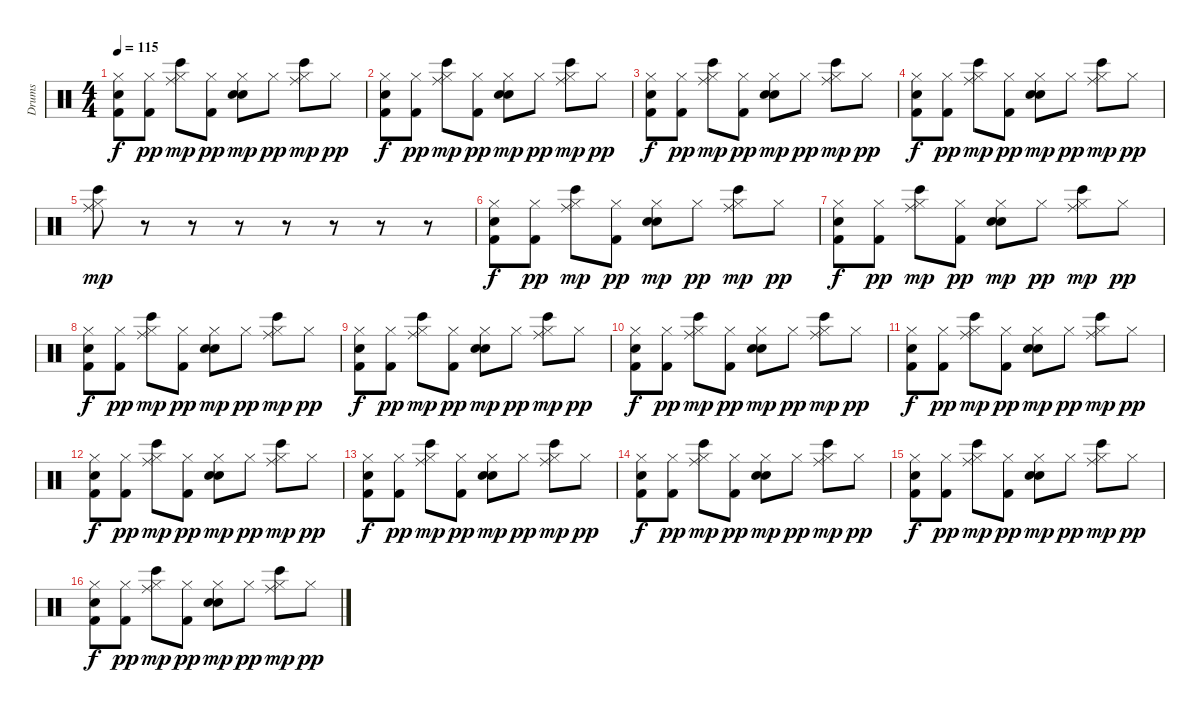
\track ("Drums" "Drums") {instrument percussion}
\staff {score}
\articulation defaults
\ts (4 4)
\tempo 115
\clef neutral
\ks c
("Hi-Hat (closed)" "Hand Clap (hit)" "Kick (hit) 2").8{dy f} ("Hi-Hat (closed)" "Kick (hit) 2").8{dy pp} ("Hi-Hat (closed)" "Ride (middle)" "Bongo High (hit)").8{dy mp} ("Hi-Hat (closed)" "Kick (hit) 2").8{dy pp} ("Hi-Hat (closed)" "Hand Clap (hit)" "Electric Snare (hit)").8{dy mp} "Hi-Hat (closed)".8{dy pp} ("Hi-Hat (closed)" "Ride (middle)" "Bongo High (hit)").8{dy mp} "Hi-Hat (closed)".8{dy pp} |
("Hi-Hat (closed)" "Hand Clap (hit)" "Kick (hit) 2").8{dy f} ("Hi-Hat (closed)" "Kick (hit) 2").8{dy pp} ("Hi-Hat (closed)" "Ride (middle)" "Bongo High (hit)").8{dy mp} ("Hi-Hat (closed)" "Kick (hit) 2").8{dy pp} ("Hi-Hat (closed)" "Hand Clap (hit)" "Electric Snare (hit)").8{dy mp} "Hi-Hat (closed)".8{dy pp} ("Hi-Hat (closed)" "Ride (middle)" "Bongo High (hit)").8{dy mp} "Hi-Hat (closed)".8{dy pp} |
("Hi-Hat (closed)" "Hand Clap (hit)" "Kick (hit) 2").8{dy f} ("Hi-Hat (closed)" "Kick (hit) 2").8{dy pp} ("Hi-Hat (closed)" "Ride (middle)" "Bongo High (hit)").8{dy mp} ("Hi-Hat (closed)" "Kick (hit) 2").8{dy pp} ("Hi-Hat (closed)" "Hand Clap (hit)" "Electric Snare (hit)").8{dy mp} "Hi-Hat (closed)".8{dy pp} ("Hi-Hat (closed)" "Ride (middle)" "Bongo High (hit)").8{dy mp} "Hi-Hat (closed)".8{dy pp} |
("Hi-Hat (closed)" "Hand Clap (hit)" "Kick (hit) 2").8{dy f} ("Hi-Hat (closed)" "Kick (hit) 2").8{dy pp} ("Hi-Hat (closed)" "Ride (middle)" "Bongo High (hit)").8{dy mp} ("Hi-Hat (closed)" "Kick (hit) 2").8{dy pp} ("Hi-Hat (closed)" "Hand Clap (hit)" "Electric Snare (hit)").8{dy mp} "Hi-Hat (closed)".8{dy pp} ("Hi-Hat (closed)" "Ride (middle)" "Bongo High (hit)").8{dy mp} "Hi-Hat (closed)".8{dy pp} |
("Hi-Hat (closed)" "Ride (middle)" "Bongo High (hit)").8{dy mp} r.8 r.8 r.8 r.8 r.8 r.8 r.8 |
("Hi-Hat (closed)" "Hand Clap (hit)" "Kick (hit) 2").8{dy f} ("Hi-Hat (closed)" "Kick (hit) 2").8{dy pp} ("Hi-Hat (closed)" "Ride (middle)" "Bongo High (hit)").8{dy mp} ("Hi-Hat (closed)" "Kick (hit) 2").8{dy pp} ("Hi-Hat (closed)" "Hand Clap (hit)" "Electric Snare (hit)").8{dy mp} "Hi-Hat (closed)".8{dy pp} ("Hi-Hat (closed)" "Ride (middle)" "Bongo High (hit)").8{dy mp} "Hi-Hat (closed)".8{dy pp} |
("Hi-Hat (closed)" "Hand Clap (hit)" "Kick (hit) 2").8{dy f} ("Hi-Hat (closed)" "Kick (hit) 2").8{dy pp} ("Hi-Hat (closed)" "Ride (middle)" "Bongo High (hit)").8{dy mp} ("Hi-Hat (closed)" "Kick (hit) 2").8{dy pp} ("Hi-Hat (closed)" "Hand Clap (hit)" "Electric Snare (hit)").8{dy mp} "Hi-Hat (closed)".8{dy pp} ("Hi-Hat (closed)" "Ride (middle)" "Bongo High (hit)").8{dy mp} "Hi-Hat (closed)".8{dy pp} |
("Hi-Hat (closed)" "Hand Clap (hit)" "Kick (hit) 2").8{dy f} ("Hi-Hat (closed)" "Kick (hit) 2").8{dy pp} ("Hi-Hat (closed)" "Ride (middle)" "Bongo High (hit)").8{dy mp} ("Hi-Hat (closed)" "Kick (hit) 2").8{dy pp} ("Hi-Hat (closed)" "Hand Clap (hit)" "Electric Snare (hit)").8{dy mp} "Hi-Hat (closed)".8{dy pp} ("Hi-Hat (closed)" "Ride (middle)" "Bongo High (hit)").8{dy mp} "Hi-Hat (closed)".8{dy pp} |
("Hi-Hat (closed)" "Hand Clap (hit)" "Kick (hit) 2").8{dy f} ("Hi-Hat (closed)" "Kick (hit) 2").8{dy pp} ("Hi-Hat (closed)" "Ride (middle)" "Bongo High (hit)").8{dy mp} ("Hi-Hat (closed)" "Kick (hit) 2").8{dy pp} ("Hi-Hat (closed)" "Hand Clap (hit)" "Electric Snare (hit)").8{dy mp} "Hi-Hat (closed)".8{dy pp} ("Hi-Hat (closed)" "Ride (middle)" "Bongo High (hit)").8{dy mp} "Hi-Hat (closed)".8{dy pp} |
("Hi-Hat (closed)" "Hand Clap (hit)" "Kick (hit) 2").8{dy f} ("Hi-Hat (closed)" "Kick (hit) 2").8{dy pp} ("Hi-Hat (closed)" "Ride (middle)" "Bongo High (hit)").8{dy mp} ("Hi-Hat (closed)" "Kick (hit) 2").8{dy pp} ("Hi-Hat (closed)" "Hand Clap (hit)" "Electric Snare (hit)").8{dy mp} "Hi-Hat (closed)".8{dy pp} ("Hi-Hat (closed)" "Ride (middle)" "Bongo High (hit)").8{dy mp} "Hi-Hat (closed)".8{dy pp} |
("Hi-Hat (closed)" "Hand Clap (hit)" "Kick (hit) 2").8{dy f} ("Hi-Hat (closed)" "Kick (hit) 2").8{dy pp} ("Hi-Hat (closed)" "Ride (middle)" "Bongo High (hit)").8{dy mp} ("Hi-Hat (closed)" "Kick (hit) 2").8{dy pp} ("Hi-Hat (closed)" "Hand Clap (hit)" "Electric Snare (hit)").8{dy mp} "Hi-Hat (closed)".8{dy pp} ("Hi-Hat (closed)" "Ride (middle)" "Bongo High (hit)").8{dy mp} "Hi-Hat (closed)".8{dy pp} |
("Hi-Hat (closed)" "Hand Clap (hit)" "Kick (hit) 2").8{dy f} ("Hi-Hat (closed)" "Kick (hit) 2").8{dy pp} ("Hi-Hat (closed)" "Ride (middle)" "Bongo High (hit)").8{dy mp} ("Hi-Hat (closed)" "Kick (hit) 2").8{dy pp} ("Hi-Hat (closed)" "Hand Clap (hit)" "Electric Snare (hit)").8{dy mp} "Hi-Hat (closed)".8{dy pp} ("Hi-Hat (closed)" "Ride (middle)" "Bongo High (hit)").8{dy mp} "Hi-Hat (closed)".8{dy pp} |
("Hi-Hat (closed)" "Hand Clap (hit)" "Kick (hit) 2").8{dy f} ("Hi-Hat (closed)" "Kick (hit) 2").8{dy pp} ("Hi-Hat (closed)" "Ride (middle)" "Bongo High (hit)").8{dy mp} ("Hi-Hat (closed)" "Kick (hit) 2").8{dy pp} ("Hi-Hat (closed)" "Hand Clap (hit)" "Electric Snare (hit)").8{dy mp} "Hi-Hat (closed)".8{dy pp} ("Hi-Hat (closed)" "Ride (middle)" "Bongo High (hit)").8{dy mp} "Hi-Hat (closed)".8{dy pp} |
("Hi-Hat (closed)" "Hand Clap (hit)" "Kick (hit) 2").8{dy f} ("Hi-Hat (closed)" "Kick (hit) 2").8{dy pp} ("Hi-Hat (closed)" "Ride (middle)" "Bongo High (hit)").8{dy mp} ("Hi-Hat (closed)" "Kick (hit) 2").8{dy pp} ("Hi-Hat (closed)" "Hand Clap (hit)" "Electric Snare (hit)").8{dy mp} "Hi-Hat (closed)".8{dy pp} ("Hi-Hat (closed)" "Ride (middle)" "Bongo High (hit)").8{dy mp} "Hi-Hat (closed)".8{dy pp} |
("Hi-Hat (closed)" "Hand Clap (hit)" "Kick (hit) 2").8{dy f} ("Hi-Hat (closed)" "Kick (hit) 2").8{dy pp} ("Hi-Hat (closed)" "Ride (middle)" "Bongo High (hit)").8{dy mp} ("Hi-Hat (closed)" "Kick (hit) 2").8{dy pp} ("Hi-Hat (closed)" "Hand Clap (hit)" "Electric Snare (hit)").8{dy mp} "Hi-Hat (closed)".8{dy pp} ("Hi-Hat (closed)" "Ride (middle)" "Bongo High (hit)").8{dy mp} "Hi-Hat (closed)".8{dy pp} |
("Hi-Hat (closed)" "Hand Clap (hit)" "Kick (hit) 2").8{dy f} ("Hi-Hat (closed)" "Kick (hit) 2").8{dy pp} ("Hi-Hat (closed)" "Ride (middle)" "Bongo High (hit)").8{dy mp} ("Hi-Hat (closed)" "Kick (hit) 2").8{dy pp} ("Hi-Hat (closed)" "Hand Clap (hit)" "Electric Snare (hit)").8{dy mp} "Hi-Hat (closed)".8{dy pp} ("Hi-Hat (closed)" "Ride (middle)" "Bongo High (hit)").8{dy mp} "Hi-Hat (closed)".8{dy pp}
